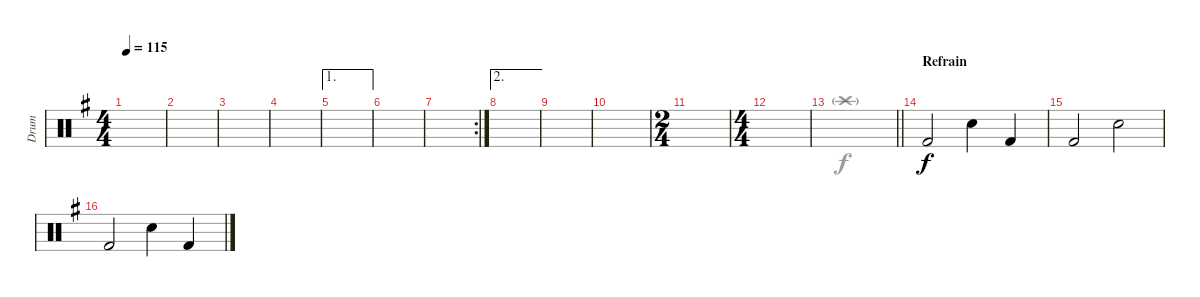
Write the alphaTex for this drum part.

\track ("Drum" "Drum") {instrument percussion}
\staff {score}
\articulation defaults
\voice
\ts (4 4)
\tempo 115
\clef neutral
\ks eminor
|
|
|
|
\ae 1
|
|
\rc 2
|
\ae 2
|
|
|
\ts (2 4)
|
\ts (4 4)
|
\barLineRight lightlight
|
\section ("" "Refrain")
"Kick (hit) 2".2 "Snare (hit) 2".4 "Kick (hit) 2".4 |
"Kick (hit) 2".2 "Snare (hit) 2".2 |
"Kick (hit) 2".2 "Snare (hit) 2".4 "Kick (hit) 2".4
\voice
\clef neutral
\ottava regular
\simile none
\ks eminor
|
|
|
|
|
|
|
|
|
|
|
|
\barLineRight lightlight "Crash high (hit)"{g}.1
|
|
|
